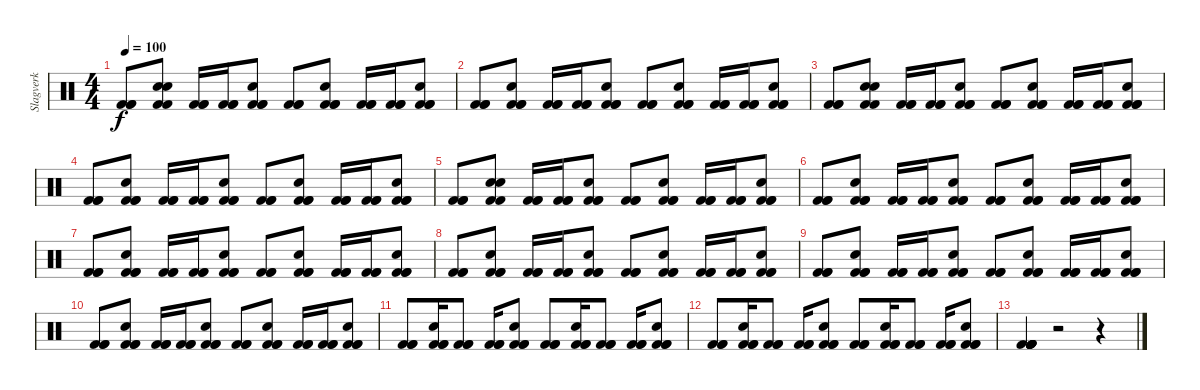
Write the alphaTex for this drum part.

\track ("Slagverk" "Slagverk") {instrument percussion}
\staff {score}
\articulation defaults
\ts (4 4)
\tempo 100
\clef neutral
\ks c
("Kick (hit) 2" "Kick (hit) 2" "Kick (hit) 2").8{dy f} ("Snare (hit) 2" "Kick (hit) 2" "Kick (hit) 2" "Snare (hit)").8 ("Kick (hit) 2" "Kick (hit) 2" "Kick (hit) 2").16 ("Kick (hit) 2" "Kick (hit) 2" "Kick (hit) 2").16 ("Snare (hit) 2" "Kick (hit) 2" "Kick (hit) 2" "Kick (hit) 2").8 ("Kick (hit) 2" "Kick (hit) 2" "Kick (hit) 2").8 ("Snare (hit) 2" "Kick (hit) 2" "Kick (hit) 2" "Kick (hit) 2").8 ("Kick (hit) 2" "Kick (hit) 2" "Kick (hit) 2").16 ("Kick (hit) 2" "Kick (hit) 2" "Kick (hit) 2").16 ("Snare (hit) 2" "Kick (hit) 2" "Kick (hit) 2" "Kick (hit) 2").8 |
("Kick (hit) 2" "Kick (hit) 2" "Kick (hit) 2").8 ("Snare (hit) 2" "Kick (hit) 2" "Kick (hit) 2" "Kick (hit) 2").8 ("Kick (hit) 2" "Kick (hit) 2" "Kick (hit) 2").16 ("Kick (hit) 2" "Kick (hit) 2" "Kick (hit) 2").16 ("Snare (hit) 2" "Kick (hit) 2" "Kick (hit) 2" "Kick (hit) 2").8 ("Kick (hit) 2" "Kick (hit) 2" "Kick (hit) 2").8 ("Snare (hit) 2" "Kick (hit) 2" "Kick (hit) 2" "Kick (hit) 2").8 ("Kick (hit) 2" "Kick (hit) 2" "Kick (hit) 2").16 ("Kick (hit) 2" "Kick (hit) 2" "Kick (hit) 2").16 ("Snare (hit) 2" "Kick (hit) 2" "Kick (hit) 2" "Kick (hit) 2").8 |
("Kick (hit) 2" "Kick (hit) 2" "Kick (hit) 2").8 ("Snare (hit) 2" "Kick (hit) 2" "Kick (hit) 2" "Snare (hit)").8 ("Kick (hit) 2" "Kick (hit) 2" "Kick (hit) 2").16 ("Kick (hit) 2" "Kick (hit) 2" "Kick (hit) 2").16 ("Snare (hit) 2" "Kick (hit) 2" "Kick (hit) 2" "Kick (hit) 2").8 ("Kick (hit) 2" "Kick (hit) 2" "Kick (hit) 2").8 ("Snare (hit) 2" "Kick (hit) 2" "Kick (hit) 2" "Kick (hit) 2").8 ("Kick (hit) 2" "Kick (hit) 2" "Kick (hit) 2").16 ("Kick (hit) 2" "Kick (hit) 2" "Kick (hit) 2").16 ("Snare (hit) 2" "Kick (hit) 2" "Kick (hit) 2" "Kick (hit) 2").8 |
("Kick (hit) 2" "Kick (hit) 2" "Kick (hit) 2").8 ("Snare (hit) 2" "Kick (hit) 2" "Kick (hit) 2" "Kick (hit) 2").8 ("Kick (hit) 2" "Kick (hit) 2" "Kick (hit) 2").16 ("Kick (hit) 2" "Kick (hit) 2" "Kick (hit) 2").16 ("Snare (hit) 2" "Kick (hit) 2" "Kick (hit) 2" "Kick (hit) 2").8 ("Kick (hit) 2" "Kick (hit) 2" "Kick (hit) 2").8 ("Snare (hit) 2" "Kick (hit) 2" "Kick (hit) 2" "Kick (hit) 2").8 ("Kick (hit) 2" "Kick (hit) 2" "Kick (hit) 2").16 ("Kick (hit) 2" "Kick (hit) 2" "Kick (hit) 2").16 ("Snare (hit) 2" "Kick (hit) 2" "Kick (hit) 2" "Kick (hit) 2").8 |
("Kick (hit) 2" "Kick (hit) 2" "Kick (hit) 2").8 ("Snare (hit) 2" "Kick (hit) 2" "Kick (hit) 2" "Snare (hit)").8 ("Kick (hit) 2" "Kick (hit) 2" "Kick (hit) 2").16 ("Kick (hit) 2" "Kick (hit) 2" "Kick (hit) 2").16 ("Snare (hit) 2" "Kick (hit) 2" "Kick (hit) 2" "Kick (hit) 2").8 ("Kick (hit) 2" "Kick (hit) 2" "Kick (hit) 2").8 ("Snare (hit) 2" "Kick (hit) 2" "Kick (hit) 2" "Kick (hit) 2").8 ("Kick (hit) 2" "Kick (hit) 2" "Kick (hit) 2").16 ("Kick (hit) 2" "Kick (hit) 2" "Kick (hit) 2").16 ("Snare (hit) 2" "Kick (hit) 2" "Kick (hit) 2" "Kick (hit) 2").8 |
("Kick (hit) 2" "Kick (hit) 2" "Kick (hit) 2").8 ("Snare (hit) 2" "Kick (hit) 2" "Kick (hit) 2" "Kick (hit) 2").8 ("Kick (hit) 2" "Kick (hit) 2" "Kick (hit) 2").16 ("Kick (hit) 2" "Kick (hit) 2" "Kick (hit) 2").16 ("Snare (hit) 2" "Kick (hit) 2" "Kick (hit) 2" "Kick (hit) 2").8 ("Kick (hit) 2" "Kick (hit) 2" "Kick (hit) 2").8 ("Snare (hit) 2" "Kick (hit) 2" "Kick (hit) 2" "Kick (hit) 2").8 ("Kick (hit) 2" "Kick (hit) 2" "Kick (hit) 2").16 ("Kick (hit) 2" "Kick (hit) 2" "Kick (hit) 2").16 ("Snare (hit) 2" "Kick (hit) 2" "Kick (hit) 2" "Kick (hit) 2").8 |
("Kick (hit) 2" "Kick (hit) 2" "Kick (hit) 2").8 ("Snare (hit) 2" "Kick (hit) 2" "Kick (hit) 2" "Kick (hit) 2").8 ("Kick (hit) 2" "Kick (hit) 2" "Kick (hit) 2").16 ("Kick (hit) 2" "Kick (hit) 2" "Kick (hit) 2").16 ("Snare (hit) 2" "Kick (hit) 2" "Kick (hit) 2" "Kick (hit) 2").8 ("Kick (hit) 2" "Kick (hit) 2" "Kick (hit) 2").8 ("Snare (hit) 2" "Kick (hit) 2" "Kick (hit) 2" "Kick (hit) 2").8 ("Kick (hit) 2" "Kick (hit) 2" "Kick (hit) 2").16 ("Kick (hit) 2" "Kick (hit) 2" "Kick (hit) 2").16 ("Snare (hit) 2" "Kick (hit) 2" "Kick (hit) 2" "Kick (hit) 2").8 |
("Kick (hit) 2" "Kick (hit) 2" "Kick (hit) 2").8 ("Snare (hit) 2" "Kick (hit) 2" "Kick (hit) 2" "Kick (hit) 2").8 ("Kick (hit) 2" "Kick (hit) 2" "Kick (hit) 2").16 ("Kick (hit) 2" "Kick (hit) 2" "Kick (hit) 2").16 ("Snare (hit) 2" "Kick (hit) 2" "Kick (hit) 2" "Kick (hit) 2").8 ("Kick (hit) 2" "Kick (hit) 2" "Kick (hit) 2").8 ("Snare (hit) 2" "Kick (hit) 2" "Kick (hit) 2" "Kick (hit) 2").8 ("Kick (hit) 2" "Kick (hit) 2" "Kick (hit) 2").16 ("Kick (hit) 2" "Kick (hit) 2" "Kick (hit) 2").16 ("Snare (hit) 2" "Kick (hit) 2" "Kick (hit) 2" "Kick (hit) 2").8 |
("Kick (hit) 2" "Kick (hit) 2" "Kick (hit) 2").8 ("Snare (hit) 2" "Kick (hit) 2" "Kick (hit) 2" "Kick (hit) 2").8 ("Kick (hit) 2" "Kick (hit) 2" "Kick (hit) 2").16 ("Kick (hit) 2" "Kick (hit) 2" "Kick (hit) 2").16 ("Snare (hit) 2" "Kick (hit) 2" "Kick (hit) 2" "Kick (hit) 2").8 ("Kick (hit) 2" "Kick (hit) 2" "Kick (hit) 2").8 ("Snare (hit) 2" "Kick (hit) 2" "Kick (hit) 2" "Kick (hit) 2").8 ("Kick (hit) 2" "Kick (hit) 2" "Kick (hit) 2").16 ("Kick (hit) 2" "Kick (hit) 2" "Kick (hit) 2").16 ("Snare (hit) 2" "Kick (hit) 2" "Kick (hit) 2" "Kick (hit) 2").8 |
("Kick (hit) 2" "Kick (hit) 2" "Kick (hit) 2").8 ("Snare (hit) 2" "Kick (hit) 2" "Kick (hit) 2" "Kick (hit) 2").8 ("Kick (hit) 2" "Kick (hit) 2" "Kick (hit) 2").16 ("Kick (hit) 2" "Kick (hit) 2" "Kick (hit) 2").16 ("Snare (hit) 2" "Kick (hit) 2" "Kick (hit) 2" "Kick (hit) 2").8 ("Kick (hit) 2" "Kick (hit) 2" "Kick (hit) 2").8 ("Snare (hit) 2" "Kick (hit) 2" "Kick (hit) 2" "Kick (hit) 2").8 ("Kick (hit) 2" "Kick (hit) 2" "Kick (hit) 2").16 ("Kick (hit) 2" "Kick (hit) 2" "Kick (hit) 2").16 ("Snare (hit) 2" "Kick (hit) 2" "Kick (hit) 2" "Kick (hit) 2").8 |
("Kick (hit) 2" "Kick (hit) 2" "Kick (hit) 2").8 ("Snare (hit) 2" "Kick (hit) 2" "Kick (hit) 2" "Kick (hit) 2").16 ("Kick (hit) 2" "Kick (hit) 2" "Kick (hit) 2").8 ("Kick (hit) 2" "Kick (hit) 2" "Kick (hit) 2").16 ("Snare (hit) 2" "Kick (hit) 2" "Kick (hit) 2" "Kick (hit) 2").8 ("Kick (hit) 2" "Kick (hit) 2" "Kick (hit) 2").8 ("Snare (hit) 2" "Kick (hit) 2" "Kick (hit) 2" "Kick (hit) 2").16 ("Kick (hit) 2" "Kick (hit) 2" "Kick (hit) 2").8 ("Kick (hit) 2" "Kick (hit) 2" "Kick (hit) 2").16 ("Snare (hit) 2" "Kick (hit) 2" "Kick (hit) 2" "Kick (hit) 2").8 |
("Kick (hit) 2" "Kick (hit) 2" "Kick (hit) 2").8 ("Snare (hit) 2" "Kick (hit) 2" "Kick (hit) 2" "Kick (hit) 2").16 ("Kick (hit) 2" "Kick (hit) 2" "Kick (hit) 2").8 ("Kick (hit) 2" "Kick (hit) 2" "Kick (hit) 2").16 ("Snare (hit) 2" "Kick (hit) 2" "Kick (hit) 2" "Kick (hit) 2").8 ("Kick (hit) 2" "Kick (hit) 2" "Kick (hit) 2").8 ("Snare (hit) 2" "Kick (hit) 2" "Kick (hit) 2" "Kick (hit) 2").16 ("Kick (hit) 2" "Kick (hit) 2" "Kick (hit) 2").8 ("Kick (hit) 2" "Kick (hit) 2" "Kick (hit) 2").16 ("Snare (hit) 2" "Kick (hit) 2" "Kick (hit) 2" "Kick (hit) 2").8 |
("Kick (hit) 2" "Kick (hit) 2" "Kick (hit) 2" "Kick (hit) 2" "Kick (hit) 2" "Kick (hit) 2").4 r.2 r.4
